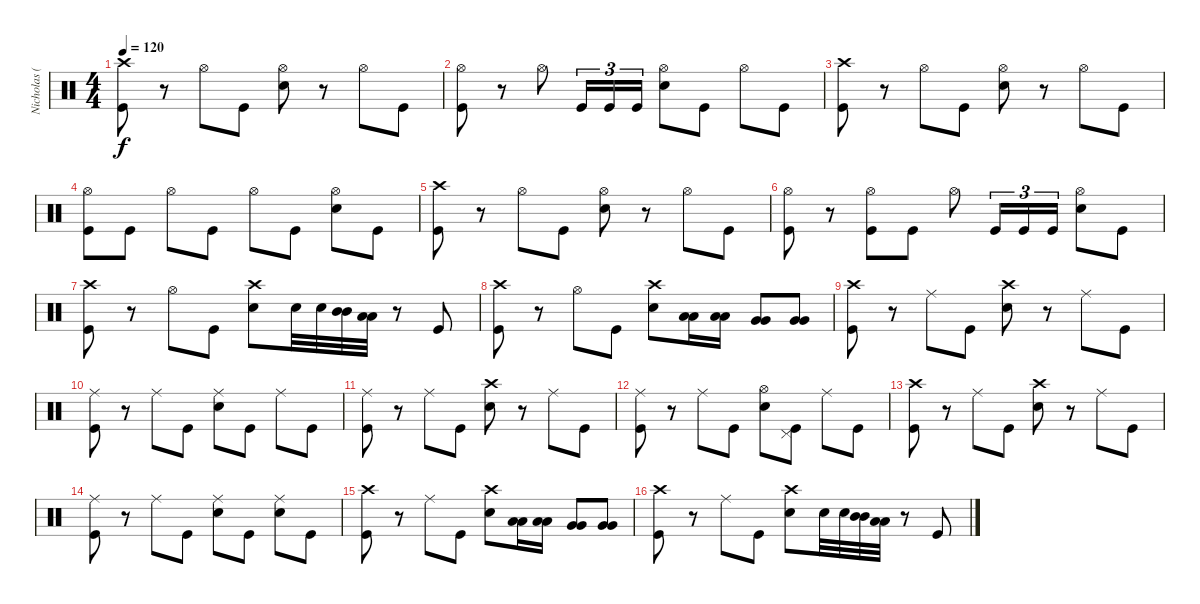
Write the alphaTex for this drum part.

\track ("Nicholas (Drums)" "Nicholas (") {instrument percussion}
\staff {score}
\articulation defaults
\ts (4 4)
\tempo 120
\clef neutral
\ks c
("Crash high (hit)" "Kick (hit)").8{dy f} r.8 "Hi-Hat (open)".8 "Kick (hit)".8 ("Hi-Hat (open)" "Electric Snare (hit)").8 r.8 "Hi-Hat (open)".8 "Kick (hit)".8 |
("Hi-Hat (open)" "Kick (hit)").8 r.8 "Hi-Hat (open)".8 "Kick (hit)".16{tu (3 2)} "Kick (hit)".16{tu (3 2)} "Kick (hit)".16{tu (3 2)} ("Hi-Hat (open)" "Electric Snare (hit)").8 "Kick (hit)".8 "Hi-Hat (open)".8 "Kick (hit)".8 |
("Crash high (hit)" "Kick (hit)").8 r.8 "Hi-Hat (open)".8 "Kick (hit)".8 ("Hi-Hat (open)" "Electric Snare (hit)").8 r.8 "Hi-Hat (open)".8 "Kick (hit)".8 |
("Hi-Hat (open)" "Kick (hit)").8 "Kick (hit)".8 "Hi-Hat (open)".8 "Kick (hit)".8 "Hi-Hat (open)".8 "Kick (hit)".8 ("Hi-Hat (open)" "Electric Snare (hit)").8 "Kick (hit)".8 |
("Crash high (hit)" "Kick (hit)").8 r.8 "Hi-Hat (open)".8 "Kick (hit)".8 ("Hi-Hat (open)" "Electric Snare (hit)").8 r.8 "Hi-Hat (open)".8 "Kick (hit)".8 |
("Hi-Hat (open)" "Kick (hit)").8 r.8 ("Hi-Hat (open)" "Kick (hit)").8 "Kick (hit)".8 "Hi-Hat (open)".8 "Kick (hit)".16{tu (3 2)} "Kick (hit)".16{tu (3 2)} "Kick (hit)".16{tu (3 2)} ("Hi-Hat (open)" "Electric Snare (hit)").8 "Kick (hit)".8 |
("Crash high (hit)" "Kick (hit)").8 r.8 "Hi-Hat (open)".8 "Kick (hit)".8 ("Crash high (hit)" "Electric Snare (hit)").8 "Electric Snare (hit)".32 "Electric Snare (hit)".32 ("Mid Tom (hit)" "Mid Tom (hit)").32 ("Low Tom (hit)" "Low Tom (hit)").32 r.8 "Kick (hit)".8 |
("Crash high (hit)" "Kick (hit)").8 r.8 "Hi-Hat (open)".8 "Kick (hit)".8 ("Crash high (hit)" "Electric Snare (hit)").8 ("Low Tom (hit)" "Low Tom (hit)").16 ("Low Tom (hit)" "Low Tom (hit)").16 ("Very Low Tom (hit)" "Very Low Tom (hit)").8 ("Very Low Tom (hit)" "Very Low Tom (hit)").8 |
("Crash high (hit)" "Kick (hit)").8 r.8 "Ride (middle)".8 "Kick (hit)".8 ("Crash high (hit)" "Electric Snare (hit)").8 r.8 "Ride (middle)".8 "Kick (hit)".8 |
("Ride (middle)" "Kick (hit)").8 r.8 "Ride (middle)".8 "Kick (hit)".8 ("Ride (middle)" "Electric Snare (hit)").8 "Kick (hit)".8 "Ride (middle)".8 "Kick (hit)".8 |
("Ride (middle)" "Kick (hit)").8 r.8 "Ride (middle)".8 "Kick (hit)".8 ("Crash high (hit)" "Electric Snare (hit)").8 r.8 "Ride (middle)".8 "Kick (hit)".8 |
("Ride (middle)" "Kick (hit)").8 r.8 "Ride (middle)".8 "Kick (hit)".8 ("Hi-Hat (open)" "Electric Snare (hit)").8 ("Pedal Hi-Hat (hit)" "Kick (hit)").8 "Ride (middle)".8 "Kick (hit)".8 |
("Crash high (hit)" "Kick (hit)").8 r.8 "Ride (middle)".8 "Kick (hit)".8 ("Crash high (hit)" "Electric Snare (hit)").8 r.8 "Ride (middle)".8 "Kick (hit)".8 |
("Ride (middle)" "Kick (hit)").8 r.8 "Ride (middle)".8 "Kick (hit)".8 ("Ride (middle)" "Electric Snare (hit)").8 "Kick (hit)".8 ("Ride (middle)" "Electric Snare (hit)").8 "Kick (hit)".8 |
("Crash high (hit)" "Kick (hit)").8 r.8 "Ride (middle)".8 "Kick (hit)".8 ("Crash high (hit)" "Electric Snare (hit)").8 ("Low Tom (hit)" "Low Tom (hit)").16 ("Low Tom (hit)" "Low Tom (hit)").16 ("Very Low Tom (hit)" "Very Low Tom (hit)").8 ("Very Low Tom (hit)" "Very Low Tom (hit)").8 |
("Crash high (hit)" "Kick (hit)").8 r.8 "Ride (middle)".8 "Kick (hit)".8 ("Crash high (hit)" "Electric Snare (hit)").8 "Electric Snare (hit)".32 "Electric Snare (hit)".32 ("Mid Tom (hit)" "Mid Tom (hit)").32 ("Low Tom (hit)" "Low Tom (hit)").32 r.8 "Kick (hit)".8
